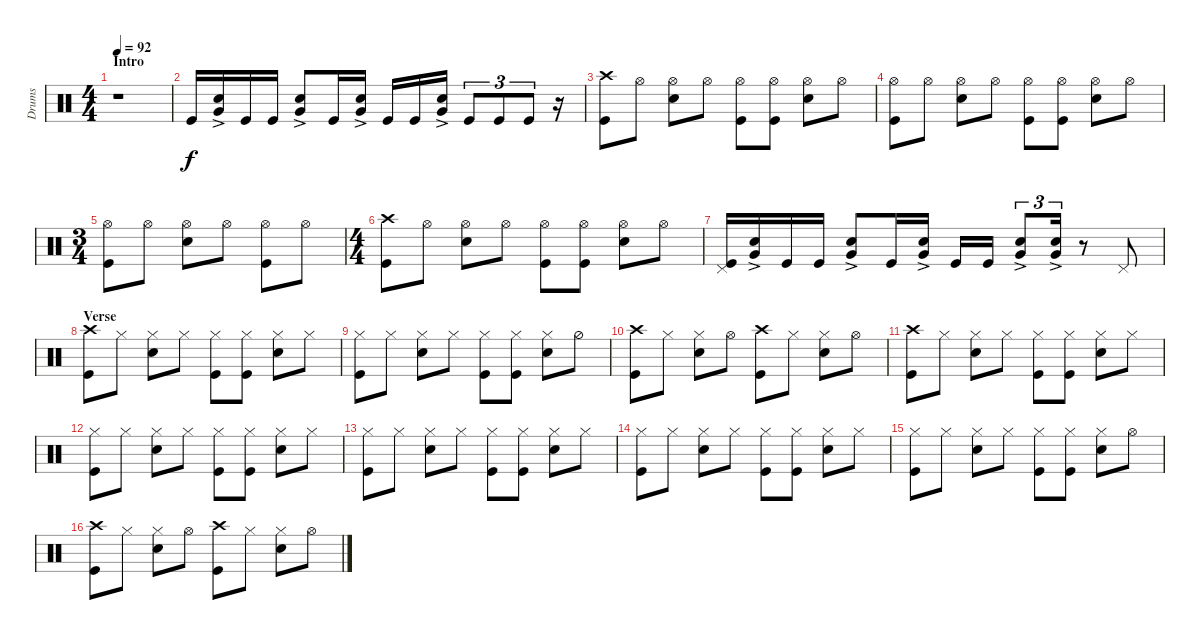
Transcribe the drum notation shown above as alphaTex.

\track ("Drums" "Drums") {instrument percussion}
\staff {score}
\articulation defaults
\ts (4 4)
\section ("" "Intro")
\tempo 92
\clef neutral
\ks c
r.1{dy f} |
"Kick (hit)".16 ("Snare (hit) 2" "Very Low Tom (hit)"{ac}).16 "Kick (hit)".16 "Kick (hit)".16 ("Snare (hit) 2" "Very Low Tom (hit)"{ac}).8 "Kick (hit)".16 ("Snare (hit) 2" "Very Low Tom (hit)"{ac}).16 "Kick (hit)".16 "Kick (hit)".16 ("Snare (hit) 2" "Very Low Tom (hit)"{ac}).16 "Kick (hit)".8{tu (3 2)} "Kick (hit)".8{tu (3 2)} "Kick (hit)".8{tu (3 2)} r.16 |
("Kick (hit)" "Crash high (hit)").8 "Hi-Hat (open)".8 ("Hi-Hat (open)" "Snare (hit) 2").8 "Hi-Hat (open)".8 ("Hi-Hat (open)" "Kick (hit)").8 ("Hi-Hat (open)" "Kick (hit)").8 ("Hi-Hat (open)" "Snare (hit) 2").8 "Hi-Hat (open)".8 |
("Kick (hit)" "Hi-Hat (open)").8 "Hi-Hat (open)".8 ("Hi-Hat (open)" "Snare (hit) 2").8 "Hi-Hat (open)".8 ("Hi-Hat (open)" "Kick (hit)").8 ("Hi-Hat (open)" "Kick (hit)").8 ("Hi-Hat (open)" "Snare (hit) 2").8 "Hi-Hat (open)".8 |
\ts (3 4)
("Kick (hit)" "Hi-Hat (open)").8 "Hi-Hat (open)".8 ("Hi-Hat (open)" "Snare (hit) 2").8 "Hi-Hat (open)".8 ("Hi-Hat (open)" "Kick (hit)").8 "Hi-Hat (open)".8 |
\ts (4 4)
("Kick (hit)" "Crash high (hit)").8 "Hi-Hat (open)".8 ("Hi-Hat (open)" "Snare (hit) 2").8 "Hi-Hat (open)".8 ("Hi-Hat (open)" "Kick (hit)").8 ("Hi-Hat (open)" "Kick (hit)").8 ("Hi-Hat (open)" "Snare (hit) 2").8 "Hi-Hat (open)".8 |
("Kick (hit)" "Pedal Hi-Hat (hit)").16 ("Very Low Tom (hit)"{ac} "Snare (hit) 2").16 "Kick (hit)".16 "Kick (hit)".16 ("Very Low Tom (hit)"{ac} "Snare (hit) 2").8 "Kick (hit)".16 ("Very Low Tom (hit)"{ac} "Snare (hit) 2").16 "Kick (hit)".16 "Kick (hit)".16 ("Very Low Tom (hit)"{ac} "Snare (hit) 2").8{tu (3 2)} ("Very Low Tom (hit)"{ac} "Snare (hit) 2").16{tu (3 2)} r.8 "Pedal Hi-Hat (hit)".8 |
\section ("" "Verse")
("Kick (hit)" "Crash high (hit)").8 "Hi-Hat (closed)".8 ("Hi-Hat (closed)" "Snare (hit) 2").8 "Hi-Hat (closed)".8 ("Kick (hit)" "Hi-Hat (closed)").8 ("Hi-Hat (closed)" "Kick (hit)").8 ("Hi-Hat (closed)" "Snare (hit) 2").8 "Hi-Hat (closed)".8 |
("Kick (hit)" "Hi-Hat (closed)").8 "Hi-Hat (closed)".8 ("Hi-Hat (closed)" "Snare (hit) 2").8 "Hi-Hat (closed)".8 ("Kick (hit)" "Hi-Hat (closed)").8 ("Hi-Hat (closed)" "Kick (hit)").8 ("Hi-Hat (closed)" "Snare (hit) 2").8 "Hi-Hat (half)".8 |
("Kick (hit)" "Crash high (hit)").8 "Hi-Hat (closed)".8 ("Hi-Hat (closed)" "Snare (hit) 2").8 "Hi-Hat (open)".8 ("Kick (hit)" "Crash high (hit)").8 "Hi-Hat (closed)".8 ("Hi-Hat (closed)" "Snare (hit) 2").8 "Hi-Hat (open)".8 |
("Kick (hit)" "Crash high (hit)").8 "Hi-Hat (closed)".8 ("Hi-Hat (closed)" "Snare (hit) 2").8 "Hi-Hat (closed)".8 ("Kick (hit)" "Hi-Hat (closed)").8 ("Hi-Hat (closed)" "Kick (hit)").8 ("Hi-Hat (closed)" "Snare (hit) 2").8 "Hi-Hat (closed)".8 |
("Kick (hit)" "Hi-Hat (closed)").8 "Hi-Hat (closed)".8 ("Hi-Hat (closed)" "Snare (hit) 2").8 "Hi-Hat (closed)".8 ("Kick (hit)" "Hi-Hat (closed)").8 ("Hi-Hat (closed)" "Kick (hit)").8 ("Hi-Hat (closed)" "Snare (hit) 2").8 "Hi-Hat (closed)".8 |
("Kick (hit)" "Hi-Hat (closed)").8 "Hi-Hat (closed)".8 ("Hi-Hat (closed)" "Snare (hit) 2").8 "Hi-Hat (closed)".8 ("Kick (hit)" "Hi-Hat (closed)").8 ("Hi-Hat (closed)" "Kick (hit)").8 ("Hi-Hat (closed)" "Snare (hit) 2").8 "Hi-Hat (closed)".8 |
("Kick (hit)" "Hi-Hat (closed)").8 "Hi-Hat (closed)".8 ("Hi-Hat (closed)" "Snare (hit) 2").8 "Hi-Hat (closed)".8 ("Kick (hit)" "Hi-Hat (closed)").8 ("Hi-Hat (closed)" "Kick (hit)").8 ("Hi-Hat (closed)" "Snare (hit) 2").8 "Hi-Hat (closed)".8 |
("Kick (hit)" "Hi-Hat (closed)").8 "Hi-Hat (closed)".8 ("Hi-Hat (closed)" "Snare (hit) 2").8 "Hi-Hat (closed)".8 ("Kick (hit)" "Hi-Hat (closed)").8 ("Hi-Hat (closed)" "Kick (hit)").8 ("Hi-Hat (closed)" "Snare (hit) 2").8 "Hi-Hat (open)".8 |
("Kick (hit)" "Crash high (hit)").8 "Hi-Hat (closed)".8 ("Hi-Hat (closed)" "Snare (hit) 2").8 "Hi-Hat (open)".8 ("Kick (hit)" "Crash high (hit)").8 "Hi-Hat (closed)".8 ("Hi-Hat (closed)" "Snare (hit) 2").8 "Hi-Hat (open)".8
